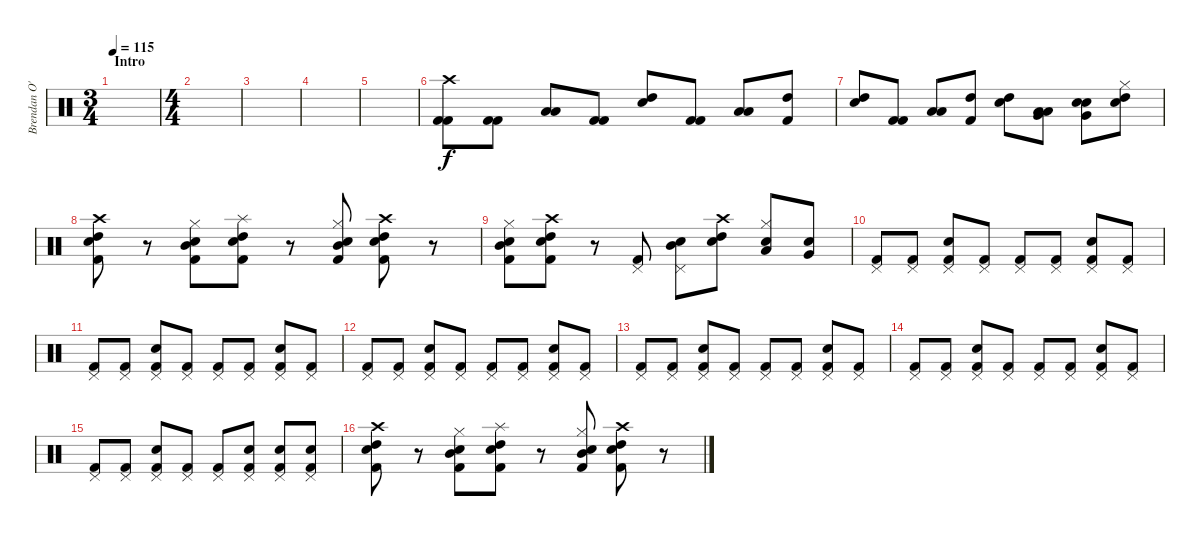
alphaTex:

\track ("Brendan O'Neill" "Brendan O'") {instrument percussion}
\staff {score}
\articulation defaults
\ts (3 4)
\section ("" "Intro")
\tempo 115
\clef neutral
\ks c
|
\ts (4 4)
|
|
|
|
("Crash high (hit)" "Kick (hit) 2" "Kick (hit) 2").8 ("Kick (hit) 2" "Kick (hit) 2").8 ("Low Tom (hit)" "Low Tom (hit)").8 ("Kick (hit) 2" "Kick (hit) 2").8 ("High Tom (hit)" "Electric Snare (hit)").8 ("Kick (hit) 2" "Kick (hit) 2").8 ("Low Tom (hit)" "Low Tom (hit)").8 ("High Tom (hit)" "Kick (hit) 2").8 |
("High Tom (hit)" "Electric Snare (hit)").8 ("Kick (hit) 2" "Kick (hit) 2").8 ("Low Tom (hit)" "Low Tom (hit)").8 ("High Tom (hit)" "Kick (hit) 2").8 ("High Tom (hit)" "Electric Snare (hit)").8 ("Very Low Tom (hit)" "Low Tom (hit)" "Low Tom (hit)").8 ("Electric Snare (hit)" "Electric Snare (hit)" "Very Low Tom (hit)").8 ("Hi-Hat (closed)" "Snare (hit) 2" "High Tom (hit)").8 |
("Crash high (hit)" "High Tom (hit)" "Electric Snare (hit)" "Kick (hit) 2").8 r.8 ("Hi-Hat (closed)" "Mid Tom (hit)" "Snare (hit) 2" "Kick (hit) 2").8 ("Splash (hit)" "High Tom (hit)" "Electric Snare (hit)" "Kick (hit) 2").8 r.8 ("Hi-Hat (closed)" "Mid Tom (hit)" "Snare (hit) 2" "Kick (hit) 2").8 ("Crash high (hit)" "High Tom (hit)" "Electric Snare (hit)" "Kick (hit) 2").8 r.8 |
("Hi-Hat (closed)" "Mid Tom (hit)" "Snare (hit) 2" "Kick (hit) 2").8 ("Crash high (hit)" "High Tom (hit)" "Electric Snare (hit)" "Kick (hit) 2").8 r.8 ("Pedal Hi-Hat (hit)" "Kick (hit) 2").8 ("Pedal Hi-Hat (hit)" "Mid Tom (hit)" "Electric Snare (hit)").8 ("Crash high (hit)" "High Tom (hit)" "Electric Snare (hit)").8 ("Hi-Hat (closed)" "Low Tom (hit)" "Snare (hit) 2").8 ("Very Low Tom (hit)" "Snare (hit) 2").8 |
("Pedal Hi-Hat (hit)" "Kick (hit) 2").8 ("Pedal Hi-Hat (hit)" "Kick (hit) 2").8 ("Pedal Hi-Hat (hit)" "Snare (hit) 2" "Kick (hit) 2").8 ("Pedal Hi-Hat (hit)" "Kick (hit) 2").8 ("Pedal Hi-Hat (hit)" "Kick (hit) 2").8 ("Pedal Hi-Hat (hit)" "Kick (hit) 2").8 ("Pedal Hi-Hat (hit)" "Snare (hit) 2" "Kick (hit) 2").8 ("Pedal Hi-Hat (hit)" "Kick (hit) 2").8 |
("Pedal Hi-Hat (hit)" "Kick (hit) 2").8 ("Pedal Hi-Hat (hit)" "Kick (hit) 2").8 ("Pedal Hi-Hat (hit)" "Snare (hit) 2" "Kick (hit) 2").8 ("Pedal Hi-Hat (hit)" "Kick (hit) 2").8 ("Pedal Hi-Hat (hit)" "Kick (hit) 2").8 ("Pedal Hi-Hat (hit)" "Kick (hit) 2").8 ("Pedal Hi-Hat (hit)" "Snare (hit) 2" "Kick (hit) 2").8 ("Pedal Hi-Hat (hit)" "Kick (hit) 2").8 |
("Pedal Hi-Hat (hit)" "Kick (hit) 2").8 ("Pedal Hi-Hat (hit)" "Kick (hit) 2").8 ("Pedal Hi-Hat (hit)" "Snare (hit) 2" "Kick (hit) 2").8 ("Pedal Hi-Hat (hit)" "Kick (hit) 2").8 ("Pedal Hi-Hat (hit)" "Kick (hit) 2").8 ("Pedal Hi-Hat (hit)" "Kick (hit) 2").8 ("Pedal Hi-Hat (hit)" "Snare (hit) 2" "Kick (hit) 2").8 ("Pedal Hi-Hat (hit)" "Kick (hit) 2").8 |
("Pedal Hi-Hat (hit)" "Kick (hit) 2").8 ("Pedal Hi-Hat (hit)" "Kick (hit) 2").8 ("Pedal Hi-Hat (hit)" "Snare (hit) 2" "Kick (hit) 2").8 ("Pedal Hi-Hat (hit)" "Kick (hit) 2").8 ("Pedal Hi-Hat (hit)" "Kick (hit) 2").8 ("Pedal Hi-Hat (hit)" "Kick (hit) 2").8 ("Pedal Hi-Hat (hit)" "Snare (hit) 2" "Kick (hit) 2").8 ("Pedal Hi-Hat (hit)" "Kick (hit) 2").8 |
("Pedal Hi-Hat (hit)" "Kick (hit) 2").8 ("Pedal Hi-Hat (hit)" "Kick (hit) 2").8 ("Pedal Hi-Hat (hit)" "Snare (hit) 2" "Kick (hit) 2").8 ("Pedal Hi-Hat (hit)" "Kick (hit) 2").8 ("Pedal Hi-Hat (hit)" "Kick (hit) 2").8 ("Pedal Hi-Hat (hit)" "Kick (hit) 2").8 ("Pedal Hi-Hat (hit)" "Snare (hit) 2" "Kick (hit) 2").8 ("Pedal Hi-Hat (hit)" "Kick (hit) 2").8 |
("Pedal Hi-Hat (hit)" "Kick (hit) 2").8 ("Pedal Hi-Hat (hit)" "Kick (hit) 2").8 ("Pedal Hi-Hat (hit)" "Snare (hit) 2" "Kick (hit) 2").8 ("Pedal Hi-Hat (hit)" "Kick (hit) 2").8 ("Pedal Hi-Hat (hit)" "Kick (hit) 2").8 ("Pedal Hi-Hat (hit)" "Snare (hit) 2" "Kick (hit) 2").8 ("Pedal Hi-Hat (hit)" "Snare (hit) 2" "Kick (hit) 2").8 ("Pedal Hi-Hat (hit)" "Electric Snare (hit)" "Kick (hit) 2").8 |
("Crash high (hit)" "High Tom (hit)" "Electric Snare (hit)" "Kick (hit) 2").8 r.8 ("Hi-Hat (closed)" "Mid Tom (hit)" "Snare (hit) 2" "Kick (hit) 2").8 ("Splash (hit)" "High Tom (hit)" "Electric Snare (hit)" "Kick (hit) 2").8 r.8 ("Hi-Hat (closed)" "Mid Tom (hit)" "Snare (hit) 2" "Kick (hit) 2").8 ("Crash high (hit)" "High Tom (hit)" "Electric Snare (hit)" "Kick (hit) 2").8 r.8
